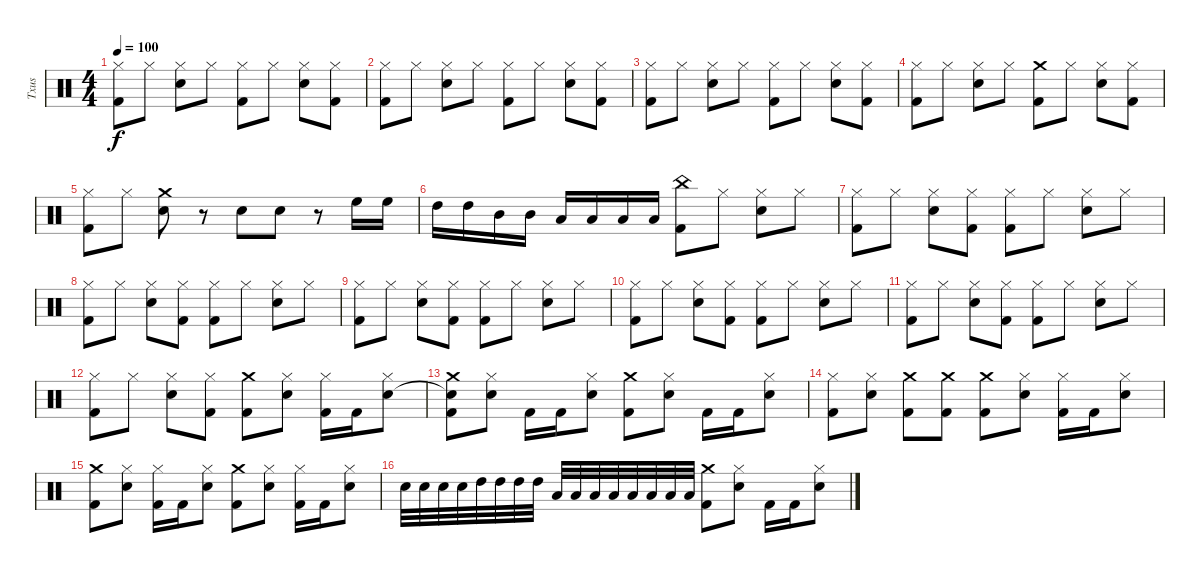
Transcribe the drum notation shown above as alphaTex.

\track ("Txus" "Txus") {instrument percussion}
\staff {score}
\articulation defaults
\ts (4 4)
\tempo 100
\clef neutral
\ks c
("Hi-Hat (closed)" "Kick (hit) 2").8{dy f} "Hi-Hat (closed)".8 ("Hi-Hat (closed)" "Electric Snare (hit)").8 "Hi-Hat (closed)".8 ("Hi-Hat (closed)" "Kick (hit) 2").8 "Hi-Hat (closed)".8 ("Hi-Hat (closed)" "Electric Snare (hit)").8 ("Hi-Hat (closed)" "Kick (hit) 2").8 |
("Hi-Hat (closed)" "Kick (hit) 2").8 "Hi-Hat (closed)".8 ("Hi-Hat (closed)" "Electric Snare (hit)").8 "Hi-Hat (closed)".8 ("Hi-Hat (closed)" "Kick (hit) 2").8 "Hi-Hat (closed)".8 ("Hi-Hat (closed)" "Electric Snare (hit)").8 ("Hi-Hat (closed)" "Kick (hit) 2").8 |
("Hi-Hat (closed)" "Kick (hit) 2").8 "Hi-Hat (closed)".8 ("Hi-Hat (closed)" "Electric Snare (hit)").8 "Hi-Hat (closed)".8 ("Hi-Hat (closed)" "Kick (hit) 2").8 "Hi-Hat (closed)".8 ("Hi-Hat (closed)" "Electric Snare (hit)").8 ("Hi-Hat (closed)" "Kick (hit) 2").8 |
("Hi-Hat (closed)" "Kick (hit) 2").8 "Hi-Hat (closed)".8 ("Hi-Hat (closed)" "Electric Snare (hit)").8 "Hi-Hat (closed)".8 ("Crash medium (hit)" "Kick (hit) 2").8 "Hi-Hat (closed)".8 ("Hi-Hat (closed)" "Electric Snare (hit)").8 ("Hi-Hat (closed)" "Kick (hit) 2").8 |
("Hi-Hat (closed)" "Kick (hit) 2").8 "Hi-Hat (closed)".8 ("Crash medium (hit)" "Electric Snare (hit)").8 r.8 "Electric Snare (hit)".8 "Electric Snare (hit)".8 r.8 "High Floor Tom (hit)".16 "High Floor Tom (hit)".16 |
"High Tom (hit)".16 "High Tom (hit)".16 "Mid Tom (hit)".16 "Mid Tom (hit)".16 "Low Tom (hit)".16 "Low Tom (hit)".16 "Low Floor Tom (hit)".16 "Low Floor Tom (hit)".16 ("China (hit)" "Kick (hit) 2").8 "Hi-Hat (closed)".8 ("Hi-Hat (closed)" "Electric Snare (hit)").8 "Hi-Hat (closed)".8 |
("Hi-Hat (closed)" "Kick (hit) 2").8 "Hi-Hat (closed)".8 ("Hi-Hat (closed)" "Electric Snare (hit)").8 ("Hi-Hat (closed)" "Kick (hit) 2").8 ("Hi-Hat (closed)" "Kick (hit) 2").8 "Hi-Hat (closed)".8 ("Hi-Hat (closed)" "Electric Snare (hit)").8 "Hi-Hat (closed)".8 |
("Hi-Hat (closed)" "Kick (hit) 2").8 "Hi-Hat (closed)".8 ("Hi-Hat (closed)" "Electric Snare (hit)").8 ("Hi-Hat (closed)" "Kick (hit) 2").8 ("Hi-Hat (closed)" "Kick (hit) 2").8 "Hi-Hat (closed)".8 ("Hi-Hat (closed)" "Electric Snare (hit)").8 "Hi-Hat (closed)".8 |
("Hi-Hat (closed)" "Kick (hit) 2").8 "Hi-Hat (closed)".8 ("Hi-Hat (closed)" "Electric Snare (hit)").8 ("Hi-Hat (closed)" "Kick (hit) 2").8 ("Hi-Hat (closed)" "Kick (hit) 2").8 "Hi-Hat (closed)".8 ("Hi-Hat (closed)" "Electric Snare (hit)").8 "Hi-Hat (closed)".8 |
("Hi-Hat (closed)" "Kick (hit) 2").8 "Hi-Hat (closed)".8 ("Hi-Hat (closed)" "Electric Snare (hit)").8 ("Hi-Hat (closed)" "Kick (hit) 2").8 ("Hi-Hat (closed)" "Kick (hit) 2").8 "Hi-Hat (closed)".8 ("Hi-Hat (closed)" "Electric Snare (hit)").8 "Hi-Hat (closed)".8 |
("Hi-Hat (closed)" "Kick (hit) 2").8 "Hi-Hat (closed)".8 ("Hi-Hat (closed)" "Electric Snare (hit)").8 ("Hi-Hat (closed)" "Kick (hit) 2").8 ("Hi-Hat (closed)" "Kick (hit) 2").8 "Hi-Hat (closed)".8 ("Hi-Hat (closed)" "Electric Snare (hit)").8 "Hi-Hat (closed)".8 |
("Hi-Hat (closed)" "Kick (hit) 2").8 "Hi-Hat (closed)".8 ("Hi-Hat (closed)" "Electric Snare (hit)").8 ("Hi-Hat (closed)" "Kick (hit) 2").8 ("Crash medium (hit)" "Kick (hit) 2").8 ("Hi-Hat (closed)" "Electric Snare (hit)").8 ("Hi-Hat (closed)" "Kick (hit) 2").16 "Kick (hit) 2".16 ("Hi-Hat (closed)" "Electric Snare (hit)").8 |
("Crash medium (hit)" "Snare (hit)"{t} "Kick (hit) 2").8 ("Hi-Hat (closed)" "Electric Snare (hit)").8 "Kick (hit) 2".16 "Kick (hit) 2".16 ("Hi-Hat (closed)" "Electric Snare (hit)").8 ("Crash medium (hit)" "Kick (hit) 2").8 ("Hi-Hat (closed)" "Electric Snare (hit)").8 "Kick (hit) 2".16 "Kick (hit) 2".16 ("Hi-Hat (closed)" "Electric Snare (hit)").8 |
("Hi-Hat (closed)" "Kick (hit) 2").8 ("Hi-Hat (closed)" "Electric Snare (hit)").8 ("Crash medium (hit)" "Kick (hit) 2").8 ("Crash medium (hit)" "Kick (hit) 2").8 ("Crash medium (hit)" "Kick (hit) 2").8 ("Hi-Hat (closed)" "Electric Snare (hit)").8 ("Hi-Hat (closed)" "Kick (hit) 2").16 "Kick (hit) 2".16 ("Hi-Hat (closed)" "Electric Snare (hit)").8 |
("Crash medium (hit)" "Kick (hit) 2").8 ("Hi-Hat (closed)" "Electric Snare (hit)").8 ("Hi-Hat (closed)" "Kick (hit) 2").16 "Kick (hit) 2".16 ("Hi-Hat (closed)" "Electric Snare (hit)").8 ("Crash medium (hit)" "Kick (hit) 2").8 ("Hi-Hat (closed)" "Electric Snare (hit)").8 ("Hi-Hat (closed)" "Kick (hit) 2").16 "Kick (hit) 2".16 ("Hi-Hat (closed)" "Electric Snare (hit)").8 |
"Electric Snare (hit)".32 "Electric Snare (hit)".32 "Electric Snare (hit)".32 "Electric Snare (hit)".32 "High Tom (hit)".32 "High Tom (hit)".32 "High Tom (hit)".32 "High Tom (hit)".32 "Low Tom (hit)".32 "Low Tom (hit)".32 "Low Tom (hit)".32 "Low Tom (hit)".32 "Low Floor Tom (hit)".32 "Low Floor Tom (hit)".32 "Low Floor Tom (hit)".32 "Low Floor Tom (hit)".32 ("Crash medium (hit)" "Kick (hit) 2").8 ("Hi-Hat (closed)" "Electric Snare (hit)").8 "Kick (hit) 2".16 "Kick (hit) 2".16 ("Hi-Hat (closed)" "Electric Snare (hit)").8
